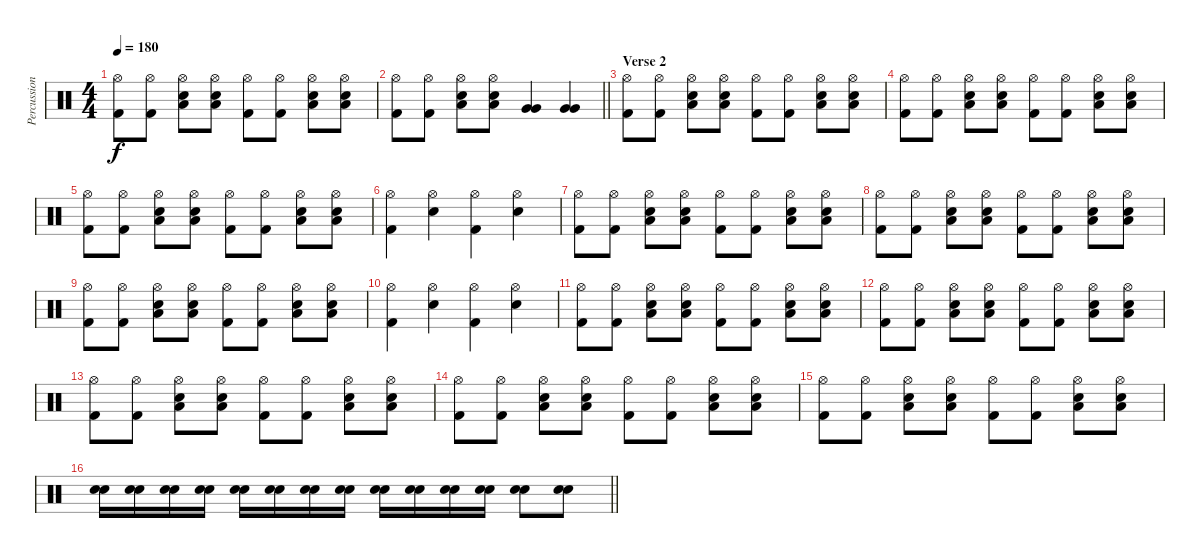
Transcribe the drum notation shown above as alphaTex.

\track ("Percussioni" "Percussion") {instrument percussion}
\staff {score}
\articulation defaults
\ts (4 4)
\tempo 180
\clef neutral
\ks c
("Hi-Hat (open)" "Kick (hit) 2").8{dy f} ("Hi-Hat (open)" "Kick (hit) 2").8 ("Hi-Hat (open)" "Electric Snare (hit)" "Low Floor Tom (hit)").8 ("Hi-Hat (open)" "Electric Snare (hit)" "Low Floor Tom (hit)").8 ("Hi-Hat (open)" "Kick (hit) 2").8 ("Hi-Hat (open)" "Kick (hit) 2").8 ("Hi-Hat (open)" "Electric Snare (hit)" "Low Floor Tom (hit)").8 ("Hi-Hat (open)" "Electric Snare (hit)" "Low Floor Tom (hit)").8 |
\barLineRight lightlight
("Hi-Hat (open)" "Kick (hit) 2").8 ("Hi-Hat (open)" "Kick (hit) 2").8 ("Hi-Hat (open)" "Electric Snare (hit)" "Low Floor Tom (hit)").8 ("Hi-Hat (open)" "Electric Snare (hit)" "Low Floor Tom (hit)").8 ("Very Low Tom (hit)" "Very Low Tom (hit)").4 ("Very Low Tom (hit)" "Very Low Tom (hit)").4 |
\section ("" "Verse 2")
("Hi-Hat (open)" "Kick (hit) 2").8 ("Hi-Hat (open)" "Kick (hit) 2").8 ("Hi-Hat (open)" "Electric Snare (hit)" "Low Floor Tom (hit)").8 ("Hi-Hat (open)" "Electric Snare (hit)" "Low Floor Tom (hit)").8 ("Hi-Hat (open)" "Kick (hit) 2").8 ("Hi-Hat (open)" "Kick (hit) 2").8 ("Hi-Hat (open)" "Electric Snare (hit)" "Low Floor Tom (hit)").8 ("Hi-Hat (open)" "Electric Snare (hit)" "Low Floor Tom (hit)").8 |
("Hi-Hat (open)" "Kick (hit) 2").8 ("Hi-Hat (open)" "Kick (hit) 2").8 ("Hi-Hat (open)" "Electric Snare (hit)" "Low Floor Tom (hit)").8 ("Hi-Hat (open)" "Electric Snare (hit)" "Low Floor Tom (hit)").8 ("Hi-Hat (open)" "Kick (hit) 2").8 ("Hi-Hat (open)" "Kick (hit) 2").8 ("Hi-Hat (open)" "Electric Snare (hit)" "Low Floor Tom (hit)").8 ("Hi-Hat (open)" "Electric Snare (hit)" "Low Floor Tom (hit)").8 |
("Hi-Hat (open)" "Kick (hit) 2").8 ("Hi-Hat (open)" "Kick (hit) 2").8 ("Hi-Hat (open)" "Electric Snare (hit)" "Low Floor Tom (hit)").8 ("Hi-Hat (open)" "Electric Snare (hit)" "Low Floor Tom (hit)").8 ("Hi-Hat (open)" "Kick (hit) 2").8 ("Hi-Hat (open)" "Kick (hit) 2").8 ("Hi-Hat (open)" "Electric Snare (hit)" "Low Floor Tom (hit)").8 ("Hi-Hat (open)" "Electric Snare (hit)" "Low Floor Tom (hit)").8 |
("Hi-Hat (open)" "Kick (hit) 2").4 ("Hi-Hat (open)" "Electric Snare (hit)").4 ("Hi-Hat (open)" "Kick (hit) 2").4 ("Hi-Hat (open)" "Electric Snare (hit)").4 |
("Hi-Hat (open)" "Kick (hit) 2").8 ("Hi-Hat (open)" "Kick (hit) 2").8 ("Hi-Hat (open)" "Electric Snare (hit)" "Low Floor Tom (hit)").8 ("Hi-Hat (open)" "Electric Snare (hit)" "Low Floor Tom (hit)").8 ("Hi-Hat (open)" "Kick (hit) 2").8 ("Hi-Hat (open)" "Kick (hit) 2").8 ("Hi-Hat (open)" "Electric Snare (hit)" "Low Floor Tom (hit)").8 ("Hi-Hat (open)" "Electric Snare (hit)" "Low Floor Tom (hit)").8 |
("Hi-Hat (open)" "Kick (hit) 2").8 ("Hi-Hat (open)" "Kick (hit) 2").8 ("Hi-Hat (open)" "Electric Snare (hit)" "Low Floor Tom (hit)").8 ("Hi-Hat (open)" "Electric Snare (hit)" "Low Floor Tom (hit)").8 ("Hi-Hat (open)" "Kick (hit) 2").8 ("Hi-Hat (open)" "Kick (hit) 2").8 ("Hi-Hat (open)" "Electric Snare (hit)" "Low Floor Tom (hit)").8 ("Hi-Hat (open)" "Electric Snare (hit)" "Low Floor Tom (hit)").8 |
("Hi-Hat (open)" "Kick (hit) 2").8 ("Hi-Hat (open)" "Kick (hit) 2").8 ("Hi-Hat (open)" "Electric Snare (hit)" "Low Floor Tom (hit)").8 ("Hi-Hat (open)" "Electric Snare (hit)" "Low Floor Tom (hit)").8 ("Hi-Hat (open)" "Kick (hit) 2").8 ("Hi-Hat (open)" "Kick (hit) 2").8 ("Hi-Hat (open)" "Electric Snare (hit)" "Low Floor Tom (hit)").8 ("Hi-Hat (open)" "Electric Snare (hit)" "Low Floor Tom (hit)").8 |
("Hi-Hat (open)" "Kick (hit) 2").4 ("Hi-Hat (open)" "Electric Snare (hit)").4 ("Hi-Hat (open)" "Kick (hit) 2").4 ("Hi-Hat (open)" "Electric Snare (hit)").4 |
("Hi-Hat (open)" "Kick (hit) 2").8 ("Hi-Hat (open)" "Kick (hit) 2").8 ("Hi-Hat (open)" "Electric Snare (hit)" "Low Floor Tom (hit)").8 ("Hi-Hat (open)" "Electric Snare (hit)" "Low Floor Tom (hit)").8 ("Hi-Hat (open)" "Kick (hit) 2").8 ("Hi-Hat (open)" "Kick (hit) 2").8 ("Hi-Hat (open)" "Electric Snare (hit)" "Low Floor Tom (hit)").8 ("Hi-Hat (open)" "Electric Snare (hit)" "Low Floor Tom (hit)").8 |
("Hi-Hat (open)" "Kick (hit) 2").8 ("Hi-Hat (open)" "Kick (hit) 2").8 ("Hi-Hat (open)" "Electric Snare (hit)" "Low Floor Tom (hit)").8 ("Hi-Hat (open)" "Electric Snare (hit)" "Low Floor Tom (hit)").8 ("Hi-Hat (open)" "Kick (hit) 2").8 ("Hi-Hat (open)" "Kick (hit) 2").8 ("Hi-Hat (open)" "Electric Snare (hit)" "Low Floor Tom (hit)").8 ("Hi-Hat (open)" "Electric Snare (hit)" "Low Floor Tom (hit)").8 |
("Hi-Hat (open)" "Kick (hit) 2").8 ("Hi-Hat (open)" "Kick (hit) 2").8 ("Hi-Hat (open)" "Electric Snare (hit)" "Low Floor Tom (hit)").8 ("Hi-Hat (open)" "Electric Snare (hit)" "Low Floor Tom (hit)").8 ("Hi-Hat (open)" "Kick (hit) 2").8 ("Hi-Hat (open)" "Kick (hit) 2").8 ("Hi-Hat (open)" "Electric Snare (hit)" "Low Floor Tom (hit)").8 ("Hi-Hat (open)" "Electric Snare (hit)" "Low Floor Tom (hit)").8 |
("Hi-Hat (open)" "Kick (hit) 2").8 ("Hi-Hat (open)" "Kick (hit) 2").8 ("Hi-Hat (open)" "Electric Snare (hit)" "Low Floor Tom (hit)").8 ("Hi-Hat (open)" "Electric Snare (hit)" "Low Floor Tom (hit)").8 ("Hi-Hat (open)" "Kick (hit) 2").8 ("Hi-Hat (open)" "Kick (hit) 2").8 ("Hi-Hat (open)" "Electric Snare (hit)" "Low Floor Tom (hit)").8 ("Hi-Hat (open)" "Electric Snare (hit)" "Low Floor Tom (hit)").8 |
("Hi-Hat (open)" "Kick (hit) 2").8 ("Hi-Hat (open)" "Kick (hit) 2").8 ("Hi-Hat (open)" "Electric Snare (hit)" "Low Floor Tom (hit)").8 ("Hi-Hat (open)" "Electric Snare (hit)" "Low Floor Tom (hit)").8 ("Hi-Hat (open)" "Kick (hit) 2").8 ("Hi-Hat (open)" "Kick (hit) 2").8 ("Hi-Hat (open)" "Electric Snare (hit)" "Low Floor Tom (hit)").8 ("Hi-Hat (open)" "Electric Snare (hit)" "Low Floor Tom (hit)").8 |
\barLineRight lightlight
("Electric Snare (hit)" "Electric Snare (hit)").16 ("Electric Snare (hit)" "Electric Snare (hit)").16 ("Electric Snare (hit)" "Electric Snare (hit)").16 ("Electric Snare (hit)" "Electric Snare (hit)").16 ("Electric Snare (hit)" "Electric Snare (hit)").16 ("Electric Snare (hit)" "Electric Snare (hit)").16 ("Electric Snare (hit)" "Electric Snare (hit)").16 ("Electric Snare (hit)" "Electric Snare (hit)").16 ("Electric Snare (hit)" "Electric Snare (hit)").16 ("Electric Snare (hit)" "Electric Snare (hit)").16 ("Electric Snare (hit)" "Electric Snare (hit)").16 ("Electric Snare (hit)" "Electric Snare (hit)").16 ("Electric Snare (hit)" "Electric Snare (hit)").8 ("Electric Snare (hit)" "Electric Snare (hit)").8
